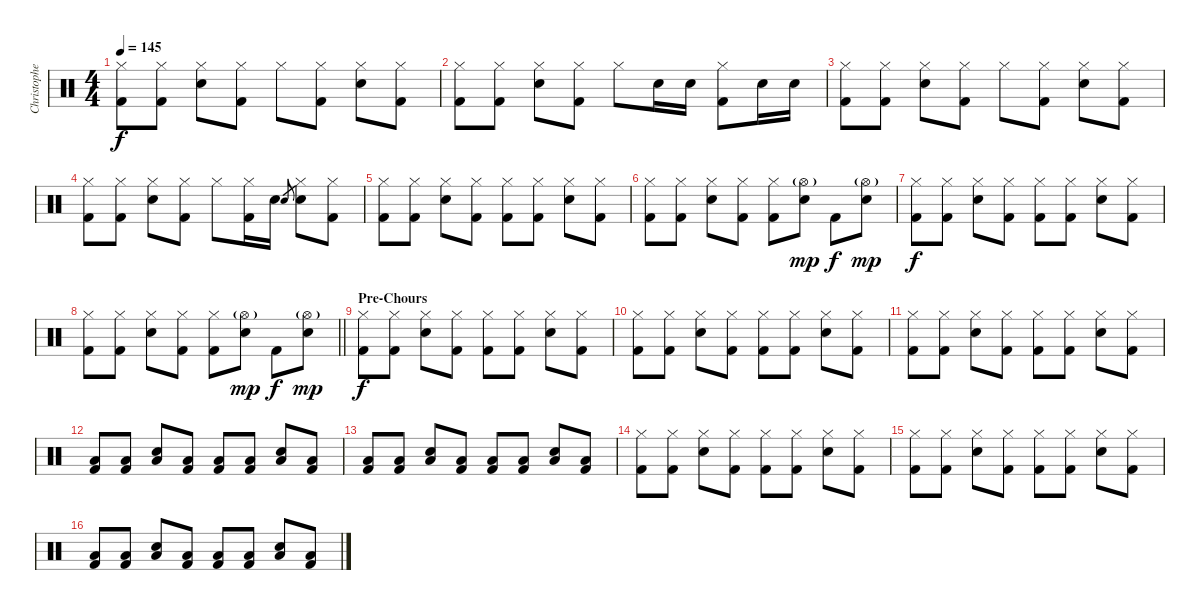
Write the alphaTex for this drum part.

\track ("Christopher - Drums" "Christophe") {instrument percussion}
\staff {score}
\articulation defaults
\ts (4 4)
\tempo 145
\clef neutral
\ks c
("Hi-Hat (closed)" "Kick (hit) 2").8{dy f} ("Hi-Hat (closed)" "Kick (hit) 2").8 ("Hi-Hat (closed)" "Electric Snare (hit)").8 ("Hi-Hat (closed)" "Kick (hit) 2").8 "Hi-Hat (closed)".8 ("Hi-Hat (closed)" "Kick (hit) 2").8 ("Hi-Hat (closed)" "Electric Snare (hit)").8 ("Hi-Hat (closed)" "Kick (hit) 2").8 |
("Hi-Hat (closed)" "Kick (hit) 2").8 ("Hi-Hat (closed)" "Kick (hit) 2").8 ("Hi-Hat (closed)" "Electric Snare (hit)").8 ("Hi-Hat (closed)" "Kick (hit) 2").8 "Hi-Hat (closed)".8 "Electric Snare (hit)".16 "Electric Snare (hit)".16 ("Hi-Hat (closed)" "Kick (hit) 2").8 "Electric Snare (hit)".16 "Electric Snare (hit)".16 |
("Hi-Hat (closed)" "Kick (hit) 2").8 ("Hi-Hat (closed)" "Kick (hit) 2").8 ("Hi-Hat (closed)" "Electric Snare (hit)").8 ("Hi-Hat (closed)" "Kick (hit) 2").8 "Hi-Hat (closed)".8 ("Hi-Hat (closed)" "Kick (hit) 2").8 ("Hi-Hat (closed)" "Electric Snare (hit)").8 ("Hi-Hat (closed)" "Kick (hit) 2").8 |
("Hi-Hat (closed)" "Kick (hit) 2").8 ("Hi-Hat (closed)" "Kick (hit) 2").8 ("Hi-Hat (closed)" "Electric Snare (hit)").8 ("Hi-Hat (closed)" "Kick (hit) 2").8 "Hi-Hat (closed)".8 ("Hi-Hat (closed)" "Kick (hit) 2").16 "Electric Snare (hit)".16 "Electric Snare (hit)".8{gr} ("Hi-Hat (closed)" "Electric Snare (hit)").8 ("Hi-Hat (closed)" "Kick (hit) 2").8 |
("Hi-Hat (closed)" "Kick (hit) 2").8 ("Hi-Hat (closed)" "Kick (hit) 2").8 ("Hi-Hat (closed)" "Electric Snare (hit)").8 ("Hi-Hat (closed)" "Kick (hit) 2").8 ("Hi-Hat (closed)" "Kick (hit) 2").8 ("Hi-Hat (closed)" "Kick (hit) 2").8 ("Hi-Hat (closed)" "Electric Snare (hit)").8 ("Hi-Hat (closed)" "Kick (hit) 2").8 |
("Hi-Hat (closed)" "Kick (hit) 2").8 ("Hi-Hat (closed)" "Kick (hit) 2").8 ("Hi-Hat (closed)" "Electric Snare (hit)").8 ("Hi-Hat (closed)" "Kick (hit) 2").8 ("Hi-Hat (closed)" "Kick (hit) 2").8 ("Hi-Hat (open)"{g} "Electric Snare (hit)").8{dy mp} "Kick (hit) 2".8{dy f} ("Hi-Hat (open)"{g} "Electric Snare (hit)").8{dy mp} |
("Hi-Hat (closed)" "Kick (hit) 2").8{dy f} ("Hi-Hat (closed)" "Kick (hit) 2").8 ("Hi-Hat (closed)" "Electric Snare (hit)").8 ("Hi-Hat (closed)" "Kick (hit) 2").8 ("Hi-Hat (closed)" "Kick (hit) 2").8 ("Hi-Hat (closed)" "Kick (hit) 2").8 ("Hi-Hat (closed)" "Electric Snare (hit)").8 ("Hi-Hat (closed)" "Kick (hit) 2").8 |
\barLineRight lightlight
("Hi-Hat (closed)" "Kick (hit) 2").8 ("Hi-Hat (closed)" "Kick (hit) 2").8 ("Hi-Hat (closed)" "Electric Snare (hit)").8 ("Hi-Hat (closed)" "Kick (hit) 2").8 ("Hi-Hat (closed)" "Kick (hit) 2").8 ("Hi-Hat (open)"{g} "Electric Snare (hit)").8{dy mp} "Kick (hit) 2".8{dy f} ("Hi-Hat (open)"{g} "Electric Snare (hit)").8{dy mp} |
\section ("" "Pre-Chours")
("Hi-Hat (closed)" "Kick (hit) 2").8{dy f} ("Hi-Hat (closed)" "Kick (hit) 2").8 ("Hi-Hat (closed)" "Electric Snare (hit)").8 ("Hi-Hat (closed)" "Kick (hit) 2").8 ("Hi-Hat (closed)" "Kick (hit) 2").8 ("Hi-Hat (closed)" "Kick (hit) 2").8 ("Hi-Hat (closed)" "Electric Snare (hit)").8 ("Hi-Hat (closed)" "Kick (hit) 2").8 |
("Hi-Hat (closed)" "Kick (hit) 2").8 ("Hi-Hat (closed)" "Kick (hit) 2").8 ("Hi-Hat (closed)" "Electric Snare (hit)").8 ("Hi-Hat (closed)" "Kick (hit) 2").8 ("Hi-Hat (closed)" "Kick (hit) 2").8 ("Hi-Hat (closed)" "Kick (hit) 2").8 ("Hi-Hat (closed)" "Electric Snare (hit)").8 ("Hi-Hat (closed)" "Kick (hit) 2").8 |
("Hi-Hat (closed)" "Kick (hit) 2").8 ("Hi-Hat (closed)" "Kick (hit) 2").8 ("Hi-Hat (closed)" "Electric Snare (hit)").8 ("Hi-Hat (closed)" "Kick (hit) 2").8 ("Hi-Hat (closed)" "Kick (hit) 2").8 ("Hi-Hat (closed)" "Kick (hit) 2").8 ("Hi-Hat (closed)" "Electric Snare (hit)").8 ("Hi-Hat (closed)" "Kick (hit) 2").8 |
("Low Tom (hit)" "Kick (hit) 2").8 ("Low Tom (hit)" "Kick (hit) 2").8 ("Low Tom (hit)" "Electric Snare (hit)").8 ("Low Tom (hit)" "Kick (hit) 2").8 ("Low Tom (hit)" "Kick (hit) 2").8 ("Low Tom (hit)" "Kick (hit) 2").8 ("Low Tom (hit)" "Electric Snare (hit)").8 ("Low Tom (hit)" "Kick (hit) 2").8 |
("Low Tom (hit)" "Kick (hit) 2").8 ("Low Tom (hit)" "Kick (hit) 2").8 ("Low Tom (hit)" "Electric Snare (hit)").8 ("Low Tom (hit)" "Kick (hit) 2").8 ("Low Tom (hit)" "Kick (hit) 2").8 ("Low Tom (hit)" "Kick (hit) 2").8 ("Low Tom (hit)" "Electric Snare (hit)").8 ("Low Tom (hit)" "Kick (hit) 2").8 |
("Hi-Hat (closed)" "Kick (hit) 2").8 ("Hi-Hat (closed)" "Kick (hit) 2").8 ("Hi-Hat (closed)" "Electric Snare (hit)").8 ("Hi-Hat (closed)" "Kick (hit) 2").8 ("Hi-Hat (closed)" "Kick (hit) 2").8 ("Hi-Hat (closed)" "Kick (hit) 2").8 ("Hi-Hat (closed)" "Electric Snare (hit)").8 ("Hi-Hat (closed)" "Kick (hit) 2").8 |
("Hi-Hat (closed)" "Kick (hit) 2").8 ("Hi-Hat (closed)" "Kick (hit) 2").8 ("Hi-Hat (closed)" "Electric Snare (hit)").8 ("Hi-Hat (closed)" "Kick (hit) 2").8 ("Hi-Hat (closed)" "Kick (hit) 2").8 ("Hi-Hat (closed)" "Kick (hit) 2").8 ("Hi-Hat (closed)" "Electric Snare (hit)").8 ("Hi-Hat (closed)" "Kick (hit) 2").8 |
("Low Tom (hit)" "Kick (hit) 2").8 ("Low Tom (hit)" "Kick (hit) 2").8 ("Low Tom (hit)" "Electric Snare (hit)").8 ("Low Tom (hit)" "Kick (hit) 2").8 ("Low Tom (hit)" "Kick (hit) 2").8 ("Low Tom (hit)" "Kick (hit) 2").8 ("Low Tom (hit)" "Electric Snare (hit)").8 ("Low Tom (hit)" "Kick (hit) 2").8
